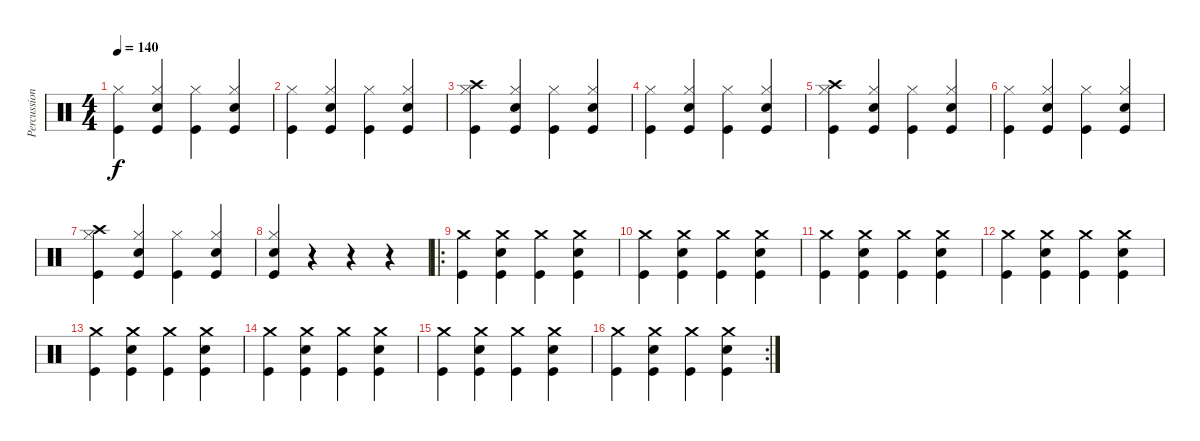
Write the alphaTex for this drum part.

\track ("Percussion" "Percussion") {instrument percussion}
\staff {score}
\articulation defaults
\ts (4 4)
\tempo 140
\clef neutral
\ks c
("Kick (hit)" "Hi-Hat (closed)").4{dy f} ("Kick (hit)" "Electric Snare (hit)" "Hi-Hat (closed)").4 ("Kick (hit)" "Hi-Hat (closed)").4 ("Kick (hit)" "Electric Snare (hit)" "Hi-Hat (closed)").4 |
("Kick (hit)" "Hi-Hat (closed)").4 ("Kick (hit)" "Electric Snare (hit)" "Hi-Hat (closed)").4 ("Kick (hit)" "Hi-Hat (closed)").4 ("Kick (hit)" "Electric Snare (hit)" "Hi-Hat (closed)").4 |
("Crash high (hit)" "Kick (hit)" "Hi-Hat (closed)").4 ("Kick (hit)" "Electric Snare (hit)" "Hi-Hat (closed)").4 ("Kick (hit)" "Hi-Hat (closed)").4 ("Kick (hit)" "Electric Snare (hit)" "Hi-Hat (closed)").4 |
("Kick (hit)" "Hi-Hat (closed)").4 ("Kick (hit)" "Electric Snare (hit)" "Hi-Hat (closed)").4 ("Kick (hit)" "Hi-Hat (closed)").4 ("Kick (hit)" "Electric Snare (hit)" "Hi-Hat (closed)").4 |
("Crash high (hit)" "Kick (hit)" "Hi-Hat (closed)").4 ("Kick (hit)" "Electric Snare (hit)" "Hi-Hat (closed)").4 ("Kick (hit)" "Hi-Hat (closed)").4 ("Kick (hit)" "Electric Snare (hit)" "Hi-Hat (closed)").4 |
("Kick (hit)" "Hi-Hat (closed)").4 ("Kick (hit)" "Electric Snare (hit)" "Hi-Hat (closed)").4 ("Kick (hit)" "Hi-Hat (closed)").4 ("Kick (hit)" "Electric Snare (hit)" "Hi-Hat (closed)").4 |
("Kick (hit)" "Crash high (hit)" "Hi-Hat (closed)").4 ("Kick (hit)" "Electric Snare (hit)" "Hi-Hat (closed)").4 ("Kick (hit)" "Hi-Hat (closed)").4 ("Kick (hit)" "Electric Snare (hit)" "Hi-Hat (closed)").4 |
("Kick (hit)" "Electric Snare (hit)" "Hi-Hat (closed)").4 r.4 r.4 r.4 |
\ro
("Kick (hit)" "Crash medium (hit)").4 ("Kick (hit)" "Electric Snare (hit)" "Crash medium (hit)").4 ("Kick (hit)" "Crash medium (hit)").4 ("Kick (hit)" "Electric Snare (hit)" "Crash medium (hit)").4 |
("Kick (hit)" "Crash medium (hit)").4 ("Kick (hit)" "Electric Snare (hit)" "Crash medium (hit)").4 ("Kick (hit)" "Crash medium (hit)").4 ("Kick (hit)" "Electric Snare (hit)" "Crash medium (hit)").4 |
("Kick (hit)" "Crash medium (hit)").4 ("Kick (hit)" "Electric Snare (hit)" "Crash medium (hit)").4 ("Kick (hit)" "Crash medium (hit)").4 ("Kick (hit)" "Electric Snare (hit)" "Crash medium (hit)").4 |
("Kick (hit)" "Crash medium (hit)").4 ("Kick (hit)" "Electric Snare (hit)" "Crash medium (hit)").4 ("Kick (hit)" "Crash medium (hit)").4 ("Kick (hit)" "Electric Snare (hit)" "Crash medium (hit)").4 |
("Kick (hit)" "Crash medium (hit)").4 ("Kick (hit)" "Electric Snare (hit)" "Crash medium (hit)").4 ("Kick (hit)" "Crash medium (hit)").4 ("Kick (hit)" "Electric Snare (hit)" "Crash medium (hit)").4 |
("Kick (hit)" "Crash medium (hit)").4 ("Kick (hit)" "Electric Snare (hit)" "Crash medium (hit)").4 ("Kick (hit)" "Crash medium (hit)").4 ("Kick (hit)" "Electric Snare (hit)" "Crash medium (hit)").4 |
("Kick (hit)" "Crash medium (hit)").4 ("Kick (hit)" "Electric Snare (hit)" "Crash medium (hit)").4 ("Kick (hit)" "Crash medium (hit)").4 ("Kick (hit)" "Electric Snare (hit)" "Crash medium (hit)").4 |
\rc 2
("Kick (hit)" "Crash medium (hit)").4 ("Kick (hit)" "Electric Snare (hit)" "Crash medium (hit)").4 ("Kick (hit)" "Crash medium (hit)").4 ("Kick (hit)" "Electric Snare (hit)" "Crash medium (hit)").4
